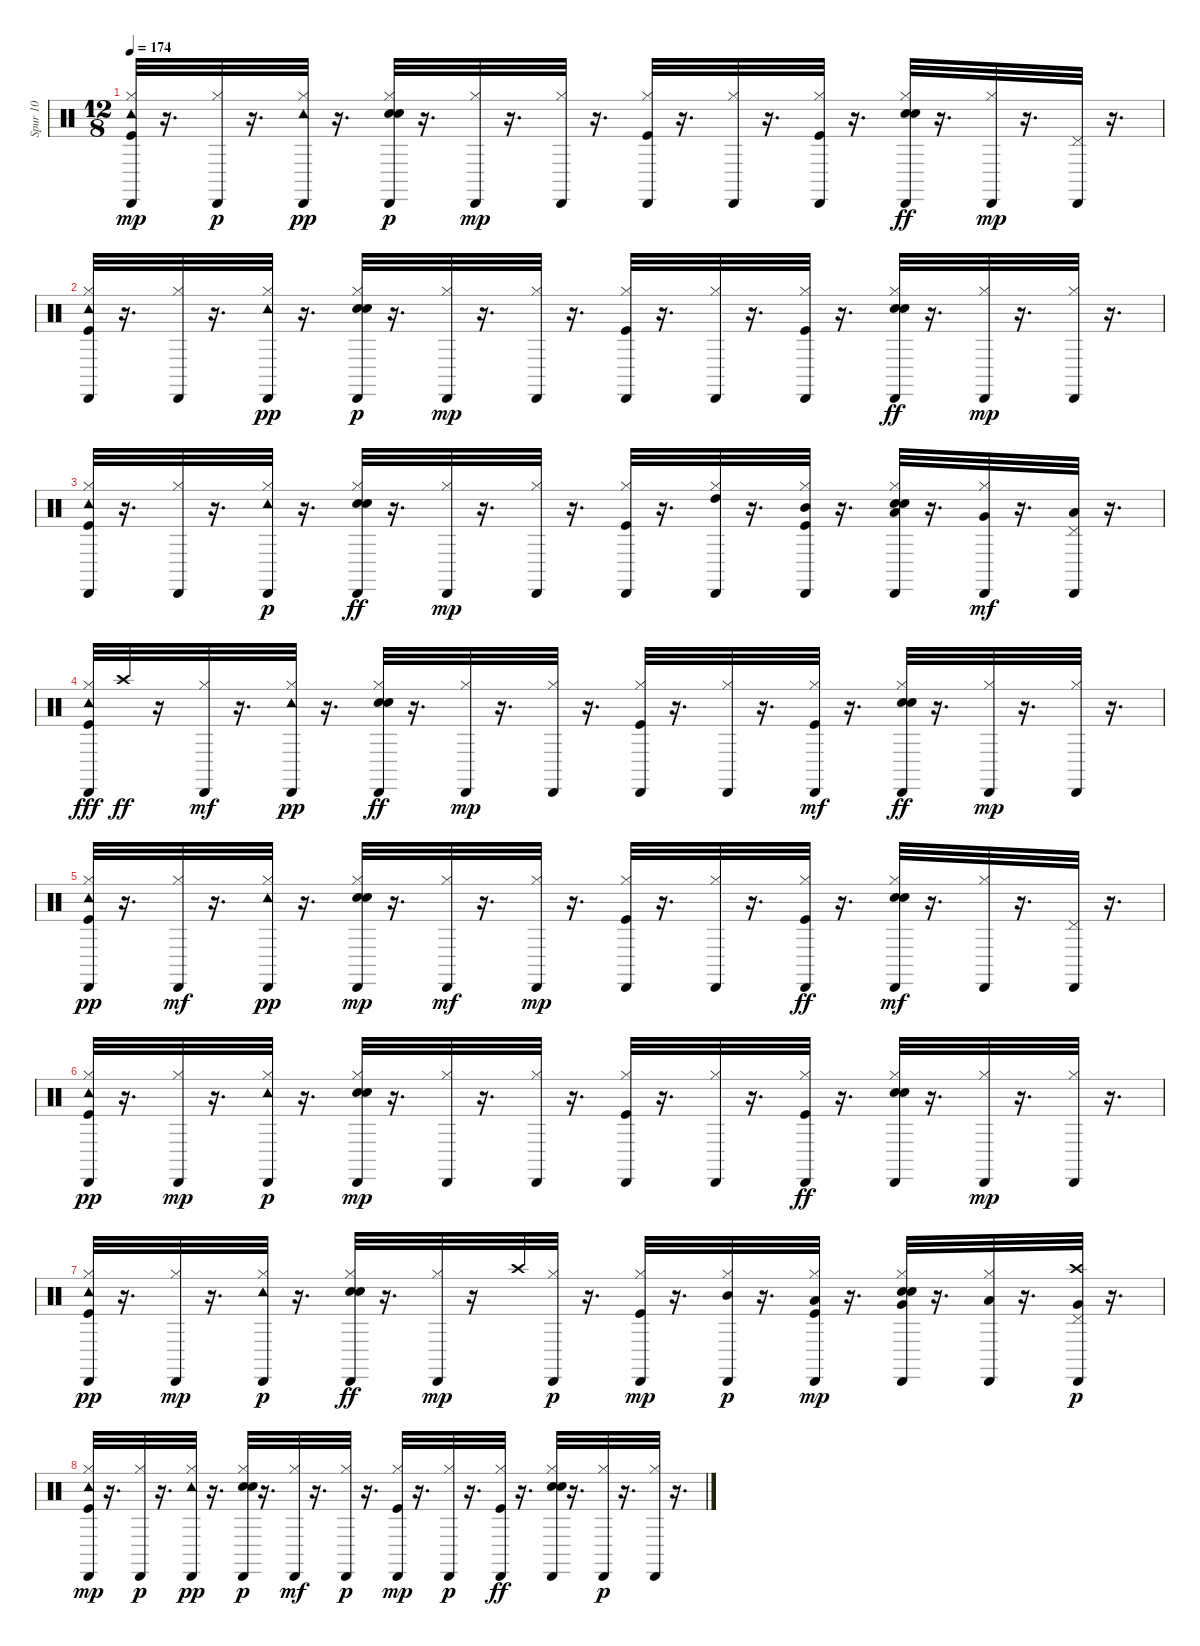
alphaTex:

\track ("Spur 10" "Spur 10") {instrument percussion}
\staff {score}
\articulation defaults
\ts (12 8)
\tempo 174
\clef neutral
\ks c
("Hi-Hat (closed)" "Kick (hit)" "Tambourine (hit)" "Cabasa (hit)").32{dy mp} r.16{d} ("Hi-Hat (closed)" "Cabasa (hit)").32{dy p} r.16{d} ("Hi-Hat (closed)" "Cabasa (hit)" "Tambourine (hit)").32{dy pp} r.16{d} ("Hi-Hat (closed)" "Electric Snare (hit)" "Hand Clap (hit)" "Cabasa (hit)").32{dy p} r.16{d} ("Hi-Hat (closed)" "Cabasa (hit)").32{dy mp} r.16{d} ("Hi-Hat (closed)" "Cabasa (hit)").32 r.16{d} ("Hi-Hat (closed)" "Kick (hit)" "Cabasa (hit)").32 r.16{d} ("Cabasa (hit)" "Hi-Hat (closed)").32 r.16{d} ("Hi-Hat (closed)" "Cabasa (hit)" "Kick (hit)").32 r.16{d} ("Hi-Hat (closed)" "Cabasa (hit)" "Electric Snare (hit)" "Hand Clap (hit)").32{dy ff} r.16{d} ("Hi-Hat (closed)" "Cabasa (hit)").32{dy mp} r.16{d} ("Pedal Hi-Hat (hit)" "Cabasa (hit)").32 r.16{d} |
("Tambourine (hit)" "Hi-Hat (closed)" "Cabasa (hit)" "Kick (hit)").32 r.16{d} ("Hi-Hat (closed)" "Cabasa (hit)").32 r.16{d} ("Hi-Hat (closed)" "Cabasa (hit)" "Tambourine (hit)").32{dy pp} r.16{d} ("Hi-Hat (closed)" "Hand Clap (hit)" "Electric Snare (hit)" "Cabasa (hit)").32{dy p} r.16{d} ("Hi-Hat (closed)" "Cabasa (hit)").32{dy mp} r.16{d} ("Hi-Hat (closed)" "Cabasa (hit)").32 r.16{d} ("Kick (hit)" "Cabasa (hit)" "Hi-Hat (closed)").32 r.16{d} ("Cabasa (hit)" "Hi-Hat (closed)").32 r.16{d} ("Hi-Hat (closed)" "Kick (hit)" "Cabasa (hit)").32 r.16{d} ("Hi-Hat (closed)" "Hand Clap (hit)" "Cabasa (hit)" "Electric Snare (hit)").32{dy ff} r.16{d} ("Hi-Hat (closed)" "Cabasa (hit)").32{dy mp} r.16{d} ("Hi-Hat (closed)" "Cabasa (hit)").32 r.16{d} |
("Tambourine (hit)" "Kick (hit)" "Cabasa (hit)" "Hi-Hat (closed)").32 r.16{d} ("Cabasa (hit)" "Hi-Hat (closed)").32 r.16{d} ("Hi-Hat (closed)" "Tambourine (hit)" "Cabasa (hit)").32{dy p} r.16{d} ("Hi-Hat (closed)" "Hand Clap (hit)" "Cabasa (hit)" "Electric Snare (hit)").32{dy ff} r.16{d} ("Hi-Hat (closed)" "Cabasa (hit)").32{dy mp} r.16{d} ("Hi-Hat (closed)" "Cabasa (hit)").32 r.16{d} ("Kick (hit)" "Hi-Hat (closed)" "Cabasa (hit)").32 r.16{d} ("Cabasa (hit)" "Hi-Hat (closed)" "High Tom (hit)").32 r.16{d} ("Hi-Hat (closed)" "Kick (hit)" "Cabasa (hit)" "Mid Tom (hit)").32 r.16{d} ("Hand Clap (hit)" "Hi-Hat (closed)" "Electric Snare (hit)" "Low Tom (hit)" "Cabasa (hit)").32 r.16{d} ("Very Low Tom (hit)" "Cabasa (hit)" "Hi-Hat (closed)").32{dy mf} r.16{d} ("Cabasa (hit)" "Pedal Hi-Hat (hit)" "Low Floor Tom (hit)").32 r.16{d} |
("Tambourine (hit)" "Cabasa (hit)" "Hi-Hat (closed)" "Kick (hit)").32{dy fff} "Crash high (hit)".32{dy ff} r.16 ("Cabasa (hit)" "Hi-Hat (closed)").32{dy mf} r.16{d} ("Hi-Hat (closed)" "Cabasa (hit)" "Tambourine (hit)").32{dy pp} r.16{d} ("Hi-Hat (closed)" "Hand Clap (hit)" "Cabasa (hit)" "Electric Snare (hit)").32{dy ff} r.16{d} ("Hi-Hat (closed)" "Cabasa (hit)").32{dy mp} r.16{d} ("Hi-Hat (closed)" "Cabasa (hit)").32 r.16{d} ("Kick (hit)" "Cabasa (hit)" "Hi-Hat (closed)").32 r.16{d} ("Hi-Hat (closed)" "Cabasa (hit)").32 r.16{d} ("Cabasa (hit)" "Hi-Hat (closed)" "Kick (hit)").32{dy mf} r.16{d} ("Hand Clap (hit)" "Cabasa (hit)" "Hi-Hat (closed)" "Electric Snare (hit)").32{dy ff} r.16{d} ("Hi-Hat (closed)" "Cabasa (hit)").32{dy mp} r.16{d} ("Hi-Hat (closed)" "Cabasa (hit)").32 r.16{d} |
("Hi-Hat (closed)" "Kick (hit)" "Cabasa (hit)" "Tambourine (hit)").32{dy pp} r.16{d} ("Cabasa (hit)" "Hi-Hat (closed)").32{dy mf} r.16{d} ("Hi-Hat (closed)" "Cabasa (hit)" "Tambourine (hit)").32{dy pp} r.16{d} ("Hi-Hat (closed)" "Electric Snare (hit)" "Hand Clap (hit)" "Cabasa (hit)").32{dy mp} r.16{d} ("Cabasa (hit)" "Hi-Hat (closed)").32{dy mf} r.16{d} ("Hi-Hat (closed)" "Cabasa (hit)").32{dy mp} r.16{d} ("Cabasa (hit)" "Kick (hit)" "Hi-Hat (closed)").32 r.16{d} ("Cabasa (hit)" "Hi-Hat (closed)").32 r.16{d} ("Cabasa (hit)" "Hi-Hat (closed)" "Kick (hit)").32{dy ff} r.16{d} ("Cabasa (hit)" "Electric Snare (hit)" "Hand Clap (hit)" "Hi-Hat (closed)").32{dy mf} r.16{d} ("Cabasa (hit)" "Hi-Hat (closed)").32 r.16{d} ("Cabasa (hit)" "Pedal Hi-Hat (hit)").32 r.16{d} |
("Kick (hit)" "Cabasa (hit)" "Hi-Hat (closed)" "Tambourine (hit)").32{dy pp} r.16{d} ("Hi-Hat (closed)" "Cabasa (hit)").32{dy mp} r.16{d} ("Hi-Hat (closed)" "Cabasa (hit)" "Tambourine (hit)").32{dy p} r.16{d} ("Hand Clap (hit)" "Hi-Hat (closed)" "Electric Snare (hit)" "Cabasa (hit)").32{dy mp} r.16{d} ("Hi-Hat (closed)" "Cabasa (hit)").32 r.16{d} ("Hi-Hat (closed)" "Cabasa (hit)").32 r.16{d} ("Hi-Hat (closed)" "Kick (hit)" "Cabasa (hit)").32 r.16{d} ("Hi-Hat (closed)" "Cabasa (hit)").32 r.16{d} ("Hi-Hat (closed)" "Cabasa (hit)" "Kick (hit)").32{dy ff} r.16{d} ("Hi-Hat (closed)" "Hand Clap (hit)" "Cabasa (hit)" "Electric Snare (hit)").32 r.16{d} ("Hi-Hat (closed)" "Cabasa (hit)").32{dy mp} r.16{d} ("Hi-Hat (closed)" "Cabasa (hit)").32 r.16{d} |
("Hi-Hat (closed)" "Kick (hit)" "Cabasa (hit)" "Tambourine (hit)").32{dy pp} r.16{d} ("Hi-Hat (closed)" "Cabasa (hit)").32{dy mp} r.16{d} ("Hi-Hat (closed)" "Cabasa (hit)" "Tambourine (hit)").32{dy p} r.16{d} ("Hi-Hat (closed)" "Cabasa (hit)" "Electric Snare (hit)" "Hand Clap (hit)").32{dy ff} r.16{d} ("Hi-Hat (closed)" "Cabasa (hit)").32{dy mp} r.16 "Crash high (hit)".32 ("Hi-Hat (closed)" "Cabasa (hit)").32{dy p} r.16{d} ("Hi-Hat (closed)" "Kick (hit)" "Cabasa (hit)").32{dy mp} r.16{d} ("Mid Tom (hit)" "Hi-Hat (closed)" "Cabasa (hit)").32{dy p} r.16{d} ("Hi-Hat (closed)" "Kick (hit)" "Low Tom (hit)" "Cabasa (hit)").32{dy mp} r.16{d} ("Hi-Hat (closed)" "Hand Clap (hit)" "Very Low Tom (hit)" "Electric Snare (hit)" "Cabasa (hit)").32 r.16{d} ("Hi-Hat (closed)" "Low Floor Tom (hit)" "Cabasa (hit)").32 r.16{d} ("Crash high (hit)" "Pedal Hi-Hat (hit)" "Very Low Tom (hit)" "Cabasa (hit)").32{dy p} r.16{d} |
("Tambourine (hit)" "Hi-Hat (closed)" "Kick (hit)" "Cabasa (hit)").32{dy mp} r.16{d} ("Hi-Hat (closed)" "Cabasa (hit)").32{dy p} r.16{d} ("Hi-Hat (closed)" "Cabasa (hit)" "Tambourine (hit)").32{dy pp} r.16{d} ("Electric Snare (hit)" "Hand Clap (hit)" "Hi-Hat (closed)" "Cabasa (hit)").32{dy p} r.16{d} ("Cabasa (hit)" "Hi-Hat (closed)").32{dy mf} r.16{d} ("Hi-Hat (closed)" "Cabasa (hit)").32{dy p} r.16{d} ("Kick (hit)" "Cabasa (hit)" "Hi-Hat (closed)").32{dy mp} r.16{d} ("Hi-Hat (closed)" "Cabasa (hit)").32{dy p} r.16{d} ("Hi-Hat (closed)" "Cabasa (hit)" "Kick (hit)").32{dy ff} r.16{d} ("Hi-Hat (closed)" "Hand Clap (hit)" "Cabasa (hit)" "Electric Snare (hit)").32 r.16{d} ("Hi-Hat (closed)" "Cabasa (hit)").32{dy p} r.16{d} ("Hi-Hat (closed)" "Cabasa (hit)").32 r.16{d}
